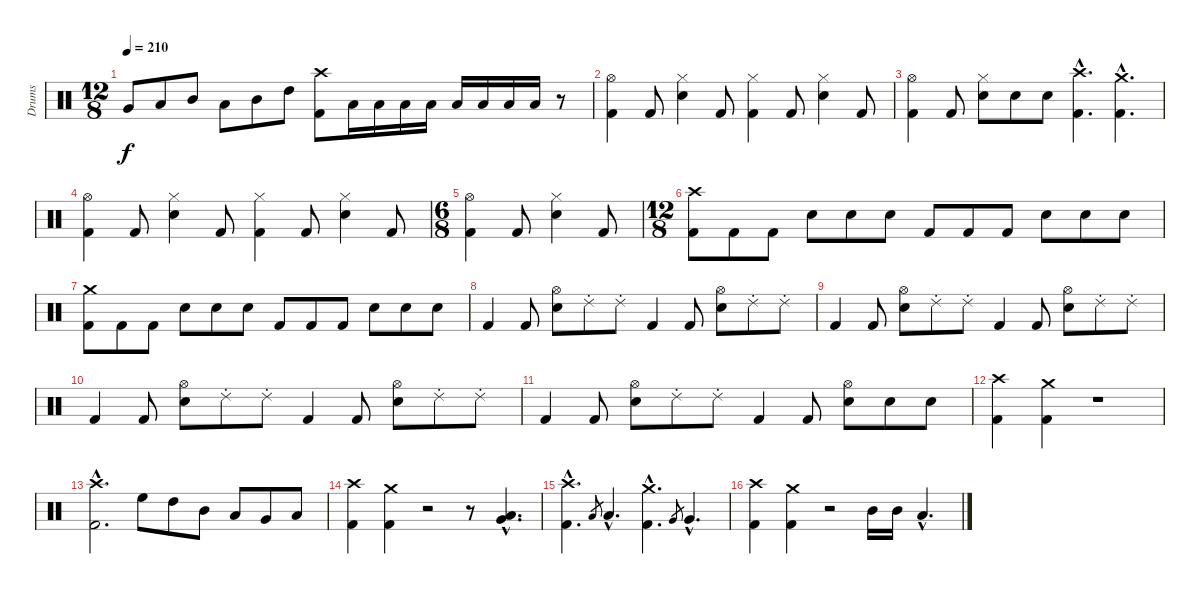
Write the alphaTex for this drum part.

\track ("Drums" "Drums") {instrument percussion}
\staff {score}
\articulation defaults
\ts (12 8)
\tempo 210
\clef neutral
\ks c "Very Low Tom (hit)".8{dy f} "Low Tom (hit)".8 "Mid Tom (hit)".8 "Low Tom (hit)".8 "Mid Tom (hit)".8 "High Tom (hit)".8
("Kick (hit) 2" "Crash high (hit)").8 "Low Tom (hit)".16 "Low Tom (hit)".16 "Low Tom (hit)".16 "Low Tom (hit)".16 "Low Tom (hit)".16 "Low Tom (hit)".16 "Low Tom (hit)".16 "Low Tom (hit)".16 r.8 |
("Kick (hit) 2" "Hi-Hat (open)").4 "Kick (hit) 2".8 ("Snare (hit) 2" "Hi-Hat (closed)").4 "Kick (hit) 2".8 ("Kick (hit) 2" "Hi-Hat (closed)").4 "Kick (hit) 2".8 ("Snare (hit) 2" "Hi-Hat (closed)").4 "Kick (hit) 2".8 |
("Kick (hit) 2" "Hi-Hat (open)").4 "Kick (hit) 2".8 ("Snare (hit) 2" "Hi-Hat (closed)").8 "Snare (hit) 2".8 "Snare (hit) 2".8 ("Kick (hit) 2"{hac} "Crash high (hit)"{hac}).4{d} ("Kick (hit) 2"{hac} "Crash medium (hit)"{hac}).4{d} |
("Kick (hit) 2" "Hi-Hat (open)").4 "Kick (hit) 2".8 ("Snare (hit) 2" "Hi-Hat (closed)").4 "Kick (hit) 2".8 ("Kick (hit) 2" "Hi-Hat (closed)").4 "Kick (hit) 2".8 ("Snare (hit) 2" "Hi-Hat (closed)").4 "Kick (hit) 2".8 |
\ts (6 8)
("Kick (hit) 2" "Hi-Hat (open)").4 "Kick (hit) 2".8 ("Snare (hit) 2" "Hi-Hat (closed)").4 "Kick (hit) 2".8 |
\ts (12 8)
("Kick (hit) 2" "Crash high (hit)").8 "Kick (hit) 2".8 "Kick (hit) 2".8 "Snare (hit) 2".8 "Snare (hit) 2".8 "Snare (hit) 2".8 "Kick (hit) 2".8 "Kick (hit) 2".8 "Kick (hit) 2".8 "Snare (hit) 2".8 "Snare (hit) 2".8 "Snare (hit) 2".8 |
("Kick (hit) 2" "Crash medium (hit)").8 "Kick (hit) 2".8 "Kick (hit) 2".8 "Snare (hit) 2".8 "Snare (hit) 2".8 "Snare (hit) 2".8 "Kick (hit) 2".8 "Kick (hit) 2".8 "Kick (hit) 2".8 "Snare (hit) 2".8 "Snare (hit) 2".8 "Snare (hit) 2".8 |
"Kick (hit) 2".4 "Kick (hit) 2".8 ("Snare (hit) 2" "Hi-Hat (open)").8 "Ride (choke) 2".8 "Ride (choke) 2".8 "Kick (hit) 2".4 "Kick (hit) 2".8 ("Snare (hit) 2" "Hi-Hat (open)").8 "Ride (choke) 2".8 "Ride (choke) 2".8 |
"Kick (hit) 2".4 "Kick (hit) 2".8 ("Snare (hit) 2" "Hi-Hat (open)").8 "Ride (choke) 2".8 "Ride (choke) 2".8 "Kick (hit) 2".4 "Kick (hit) 2".8 ("Snare (hit) 2" "Hi-Hat (open)").8 "Ride (choke) 2".8 "Ride (choke) 2".8 |
"Kick (hit) 2".4 "Kick (hit) 2".8 ("Snare (hit) 2" "Hi-Hat (open)").8 "Ride (choke) 2".8 "Ride (choke) 2".8 "Kick (hit) 2".4 "Kick (hit) 2".8 ("Snare (hit) 2" "Hi-Hat (open)").8 "Ride (choke) 2".8 "Ride (choke) 2".8 |
"Kick (hit) 2".4 "Kick (hit) 2".8 ("Snare (hit) 2" "Hi-Hat (open)").8 "Ride (choke) 2".8 "Ride (choke) 2".8 "Kick (hit) 2".4 "Kick (hit) 2".8 ("Snare (hit) 2" "Hi-Hat (open)").8 "Snare (hit) 2".8 "Snare (hit) 2".8 |
("Kick (hit) 2" "Crash high (hit)").4 ("Kick (hit) 2" "Crash medium (hit)").4 r.1 |
("Kick (hit) 2"{hac} "Crash high (hit)"{hac}).2{d} "High Floor Tom (hit)".8 "High Tom (hit)".8 "Mid Tom (hit)".8 "Low Tom (hit)".8 "Very Low Tom (hit)".8 "Low Floor Tom (hit)".8 |
("Kick (hit) 2" "Crash high (hit)").4 ("Kick (hit) 2" "Crash medium (hit)").4 r.2 r.8 ("Low Tom (hit)"{hac} "Very Low Tom (hit)"{hac}).4{d} |
("Kick (hit) 2"{hac} "Crash high (hit)"{hac}).4{d} "Low Tom (hit)".8{gr} "Low Tom (hit)"{hac}.4{d} ("Kick (hit) 2"{hac} "Crash medium (hit)"{hac}).4{d} "Very Low Tom (hit)".8{gr} "Very Low Tom (hit)"{hac}.4{d} |
("Kick (hit) 2" "Crash high (hit)").4 ("Kick (hit) 2" "Crash medium (hit)").4 r.2 "Mid Tom (hit)".16 "Mid Tom (hit)".16 "Low Tom (hit)"{hac}.4{d}
